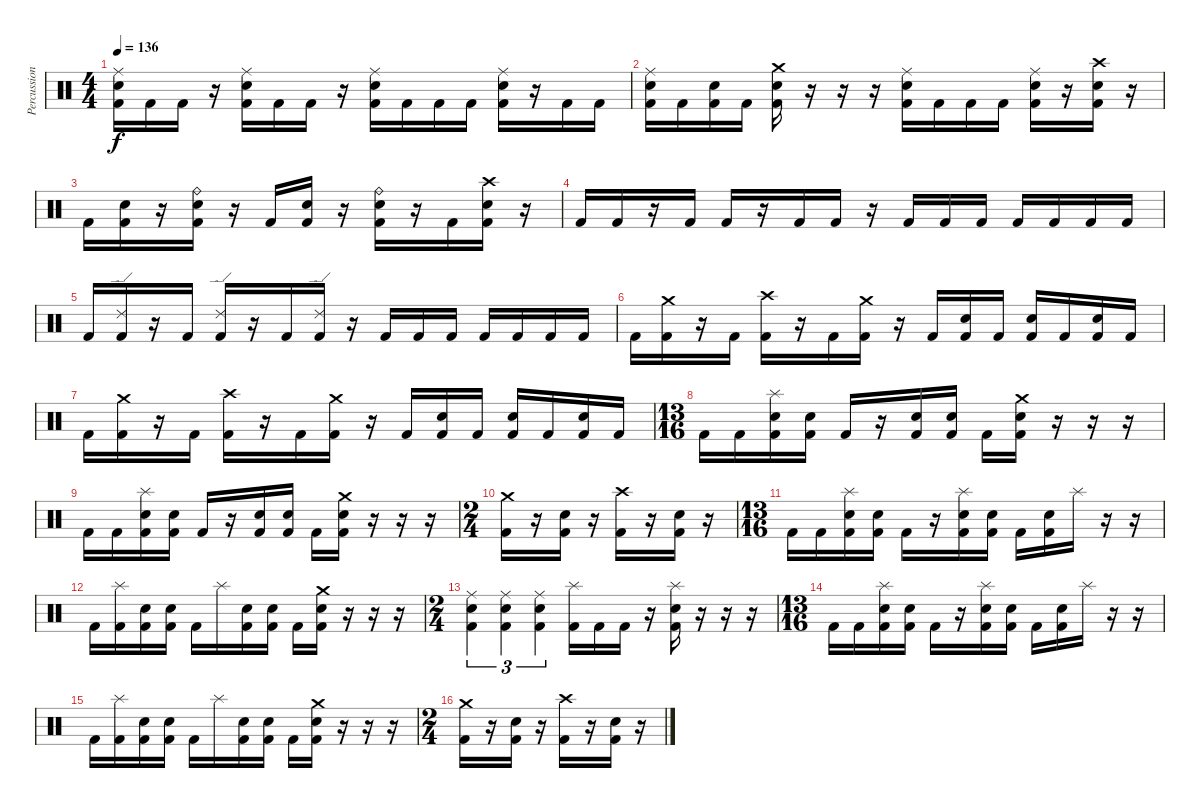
\track ("Percussion" "Percussion") {instrument percussion}
\staff {score}
\articulation defaults
\ts (4 4)
\tempo 136
\clef neutral
\ks c
("Ride (middle)" "Electric Snare (hit)" "Kick (hit) 2").16{dy f} "Kick (hit) 2".16 "Kick (hit) 2".16 r.16 ("Ride (middle)" "Electric Snare (hit)" "Kick (hit) 2").16 "Kick (hit) 2".16 "Kick (hit) 2".16 r.16 ("Ride (middle)" "Electric Snare (hit)" "Kick (hit) 2").16 "Kick (hit) 2".16 "Kick (hit) 2".16 "Kick (hit) 2".16 ("Ride (middle)" "Electric Snare (hit)" "Kick (hit) 2").16 r.16 "Kick (hit) 2".16 "Kick (hit) 2".16 |
("Ride (middle)" "Electric Snare (hit)" "Kick (hit) 2").16 "Kick (hit) 2".16 ("Electric Snare (hit)" "Kick (hit) 2").16 "Kick (hit) 2".16 ("Crash medium (hit)" "Electric Snare (hit)" "Kick (hit) 2").16 r.16 r.16 r.16 ("Ride (middle)" "Electric Snare (hit)" "Kick (hit) 2").16 "Kick (hit) 2".16 "Kick (hit) 2".16 "Kick (hit) 2".16 ("Ride (middle)" "Electric Snare (hit)" "Kick (hit) 2").16 r.16 ("Crash high (hit)" "Electric Snare (hit)" "Kick (hit) 2").16 r.16 |
"Kick (hit) 2".16 ("Electric Snare (hit)" "Kick (hit) 2").16 r.16 ("Ride (bell)" "Electric Snare (hit)" "Kick (hit) 2").16 r.16 "Kick (hit) 2".16 ("Electric Snare (hit)" "Kick (hit) 2").16 r.16 ("Ride (bell)" "Electric Snare (hit)" "Kick (hit) 2").16 r.16 "Kick (hit) 2".16 ("Crash high (hit)" "Electric Snare (hit)" "Kick (hit) 2").16 r.16 |
"Kick (hit) 2".16 "Kick (hit) 2".16 r.16 "Kick (hit) 2".16 "Kick (hit) 2".16 r.16 "Kick (hit) 2".16 "Kick (hit) 2".16 r.16 "Kick (hit) 2".16 "Kick (hit) 2".16 "Kick (hit) 2".16 "Kick (hit) 2".16 "Kick (hit) 2".16 "Kick (hit) 2".16 "Kick (hit) 2".16 |
"Kick (hit) 2".16 ("Ride (edge) 2" "Kick (hit) 2").16 r.16 "Kick (hit) 2".16 ("Ride (edge) 2" "Kick (hit) 2").16 r.16 "Kick (hit) 2".16 ("Ride (edge) 2" "Kick (hit) 2").16 r.16 "Kick (hit) 2".16 "Kick (hit) 2".16 "Kick (hit) 2".16 "Kick (hit) 2".16 "Kick (hit) 2".16 "Kick (hit) 2".16 "Kick (hit) 2".16 |
"Kick (hit) 2".16 ("Crash medium (hit)" "Kick (hit) 2").16 r.16 "Kick (hit) 2".16 ("Crash high (hit)" "Kick (hit) 2").16 r.16 "Kick (hit) 2".16 ("Crash medium (hit)" "Kick (hit) 2").16 r.16 "Kick (hit) 2".16 ("Electric Snare (hit)" "Kick (hit) 2").16 "Kick (hit) 2".16 ("Electric Snare (hit)" "Kick (hit) 2").16 "Kick (hit) 2".16 ("Electric Snare (hit)" "Kick (hit) 2").16 "Kick (hit) 2".16 |
"Kick (hit) 2".16 ("Crash medium (hit)" "Kick (hit) 2").16 r.16 "Kick (hit) 2".16 ("Crash high (hit)" "Kick (hit) 2").16 r.16 "Kick (hit) 2".16 ("Crash medium (hit)" "Kick (hit) 2").16 r.16 "Kick (hit) 2".16 ("Electric Snare (hit)" "Kick (hit) 2").16 "Kick (hit) 2".16 ("Electric Snare (hit)" "Kick (hit) 2").16 "Kick (hit) 2".16 ("Electric Snare (hit)" "Kick (hit) 2").16 "Kick (hit) 2".16 |
\ts (13 16)
"Kick (hit) 2".16 "Kick (hit) 2".16 ("Splash (hit)" "Electric Snare (hit)" "Kick (hit) 2").16 ("Electric Snare (hit)" "Kick (hit) 2").16 "Kick (hit) 2".16 r.16 ("Electric Snare (hit)" "Kick (hit) 2").16 ("Electric Snare (hit)" "Kick (hit) 2").16 "Kick (hit) 2".16 ("Crash medium (hit)" "Electric Snare (hit)" "Kick (hit) 2").16 r.16 r.16 r.16 |
"Kick (hit) 2".16 "Kick (hit) 2".16 ("Splash (hit)" "Electric Snare (hit)" "Kick (hit) 2").16 ("Electric Snare (hit)" "Kick (hit) 2").16 "Kick (hit) 2".16 r.16 ("Electric Snare (hit)" "Kick (hit) 2").16 ("Electric Snare (hit)" "Kick (hit) 2").16 "Kick (hit) 2".16 ("Crash medium (hit)" "Electric Snare (hit)" "Kick (hit) 2").16 r.16 r.16 r.16 |
\ts (2 4)
("Crash medium (hit)" "Kick (hit) 2").16 r.16 ("Electric Snare (hit)" "Kick (hit) 2").16 r.16 ("Crash high (hit)" "Kick (hit) 2").16 r.16 ("Electric Snare (hit)" "Kick (hit) 2").16 r.16 |
\ts (13 16)
"Kick (hit) 2".16 "Kick (hit) 2".16 ("Splash (hit)" "Electric Snare (hit)" "Kick (hit) 2").16 ("Electric Snare (hit)" "Kick (hit) 2").16 "Kick (hit) 2".16 r.16 ("Splash (hit)" "Electric Snare (hit)" "Kick (hit) 2").16 ("Electric Snare (hit)" "Kick (hit) 2").16 "Kick (hit) 2".16 ("Electric Snare (hit)" "Kick (hit) 2").16 "Splash (hit)".16 r.16 r.16 |
"Kick (hit) 2".16 ("Splash (hit)" "Kick (hit) 2").16 ("Electric Snare (hit)" "Kick (hit) 2").16 ("Electric Snare (hit)" "Kick (hit) 2").16 "Kick (hit) 2".16 "Splash (hit)".16 ("Electric Snare (hit)" "Kick (hit) 2").16 ("Electric Snare (hit)" "Kick (hit) 2").16 "Kick (hit) 2".16 ("Crash medium (hit)" "Electric Snare (hit)" "Kick (hit) 2").16 r.16 r.16 r.16 |
\ts (2 4)
("Ride (middle)" "Electric Snare (hit)" "Kick (hit) 2").4{tu (3 2)} ("Ride (middle)" "Electric Snare (hit)" "Kick (hit) 2").4{tu (3 2)} ("Ride (middle)" "Electric Snare (hit)" "Kick (hit) 2").4{tu (3 2)} ("Splash (hit)" "Kick (hit) 2").16 "Kick (hit) 2".16 "Kick (hit) 2".16 r.16 ("Splash (hit)" "Electric Snare (hit)" "Kick (hit) 2").16 r.16 r.16 r.16 |
\ts (13 16)
"Kick (hit) 2".16 "Kick (hit) 2".16 ("Splash (hit)" "Electric Snare (hit)" "Kick (hit) 2").16 ("Electric Snare (hit)" "Kick (hit) 2").16 "Kick (hit) 2".16 r.16 ("Splash (hit)" "Electric Snare (hit)" "Kick (hit) 2").16 ("Electric Snare (hit)" "Kick (hit) 2").16 "Kick (hit) 2".16 ("Electric Snare (hit)" "Kick (hit) 2").16 "Splash (hit)".16 r.16 r.16 |
"Kick (hit) 2".16 ("Splash (hit)" "Kick (hit) 2").16 ("Electric Snare (hit)" "Kick (hit) 2").16 ("Electric Snare (hit)" "Kick (hit) 2").16 "Kick (hit) 2".16 "Splash (hit)".16 ("Electric Snare (hit)" "Kick (hit) 2").16 ("Electric Snare (hit)" "Kick (hit) 2").16 "Kick (hit) 2".16 ("Crash medium (hit)" "Electric Snare (hit)" "Kick (hit) 2").16 r.16 r.16 r.16 |
\ts (2 4)
("Crash medium (hit)" "Kick (hit) 2").16 r.16 ("Electric Snare (hit)" "Kick (hit) 2").16 r.16 ("Crash high (hit)" "Kick (hit) 2").16 r.16 ("Electric Snare (hit)" "Kick (hit) 2").16 r.16
